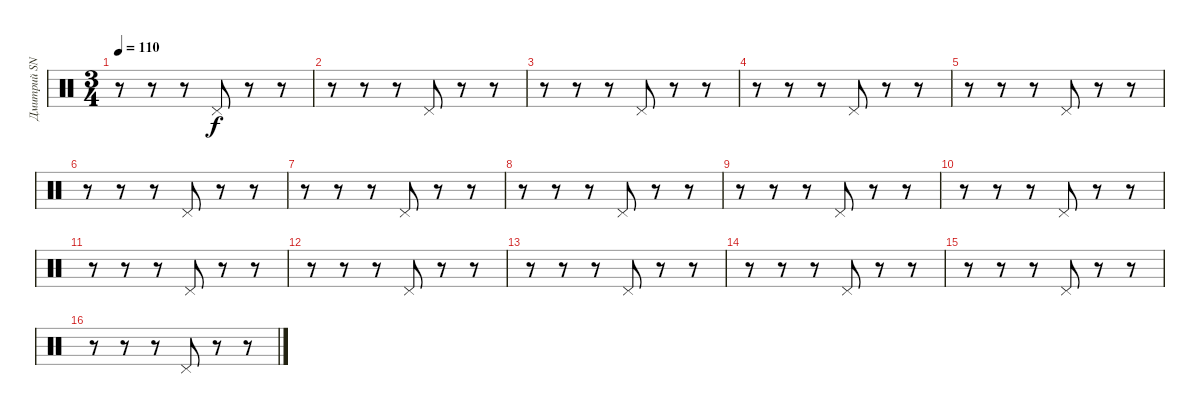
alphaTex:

\track ("Дмитрий SNAKE" "Дмитрий SN") {instrument percussion}
\staff {score}
\articulation defaults
\ts (3 4)
\tempo 110
\clef neutral
\ks c
r.8{dy f} r.8 r.8 "Pedal Hi-Hat (hit)".8 r.8 r.8 |
r.8 r.8 r.8 "Pedal Hi-Hat (hit)".8 r.8 r.8 |
r.8 r.8 r.8 "Pedal Hi-Hat (hit)".8 r.8 r.8 |
r.8 r.8 r.8 "Pedal Hi-Hat (hit)".8 r.8 r.8 |
r.8 r.8 r.8 "Pedal Hi-Hat (hit)".8 r.8 r.8 |
r.8 r.8 r.8 "Pedal Hi-Hat (hit)".8 r.8 r.8 |
r.8 r.8 r.8 "Pedal Hi-Hat (hit)".8 r.8 r.8 |
r.8 r.8 r.8 "Pedal Hi-Hat (hit)".8 r.8 r.8 |
r.8 r.8 r.8 "Pedal Hi-Hat (hit)".8 r.8 r.8 |
r.8 r.8 r.8 "Pedal Hi-Hat (hit)".8 r.8 r.8 |
r.8 r.8 r.8 "Pedal Hi-Hat (hit)".8 r.8 r.8 |
r.8 r.8 r.8 "Pedal Hi-Hat (hit)".8 r.8 r.8 |
r.8 r.8 r.8 "Pedal Hi-Hat (hit)".8 r.8 r.8 |
r.8 r.8 r.8 "Pedal Hi-Hat (hit)".8 r.8 r.8 |
r.8 r.8 r.8 "Pedal Hi-Hat (hit)".8 r.8 r.8 |
r.8 r.8 r.8 "Pedal Hi-Hat (hit)".8 r.8 r.8
